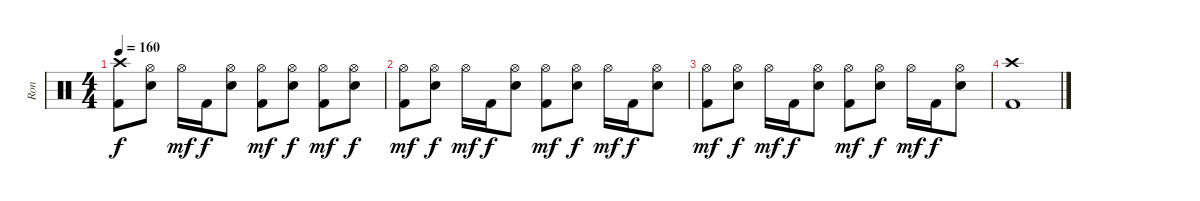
\track ("Ron" "Ron") {instrument percussion}
\staff {score}
\articulation defaults
\ts (4 4)
\tempo 160
\clef neutral
\ks c
("Crash high (hit)" "Kick (hit) 2").8{dy f} ("Hi-Hat (open)" "Electric Snare (hit)").8 "Hi-Hat (open)".16{dy mf} "Kick (hit) 2".16{dy f} ("Hi-Hat (open)" "Electric Snare (hit)").8 ("Hi-Hat (open)" "Kick (hit) 2").8{dy mf} ("Hi-Hat (open)" "Electric Snare (hit)").8{dy f} ("Hi-Hat (open)" "Kick (hit) 2").8{dy mf} ("Hi-Hat (open)" "Electric Snare (hit)").8{dy f} |
("Hi-Hat (open)" "Kick (hit) 2").8{dy mf} ("Hi-Hat (open)" "Electric Snare (hit)").8{dy f} "Hi-Hat (open)".16{dy mf} "Kick (hit) 2".16{dy f} ("Hi-Hat (open)" "Electric Snare (hit)").8 ("Hi-Hat (open)" "Kick (hit) 2").8{dy mf} ("Hi-Hat (open)" "Electric Snare (hit)").8{dy f} "Hi-Hat (open)".16{dy mf} "Kick (hit) 2".16{dy f} ("Hi-Hat (open)" "Electric Snare (hit)").8 |
("Hi-Hat (open)" "Kick (hit) 2").8{dy mf} ("Hi-Hat (open)" "Electric Snare (hit)").8{dy f} "Hi-Hat (open)".16{dy mf} "Kick (hit) 2".16{dy f} ("Hi-Hat (open)" "Electric Snare (hit)").8 ("Hi-Hat (open)" "Kick (hit) 2").8{dy mf} ("Hi-Hat (open)" "Electric Snare (hit)").8{dy f} "Hi-Hat (open)".16{dy mf} "Kick (hit) 2".16{dy f} ("Hi-Hat (open)" "Electric Snare (hit)").8 |
("Crash high (hit)" "Kick (hit) 2").1
